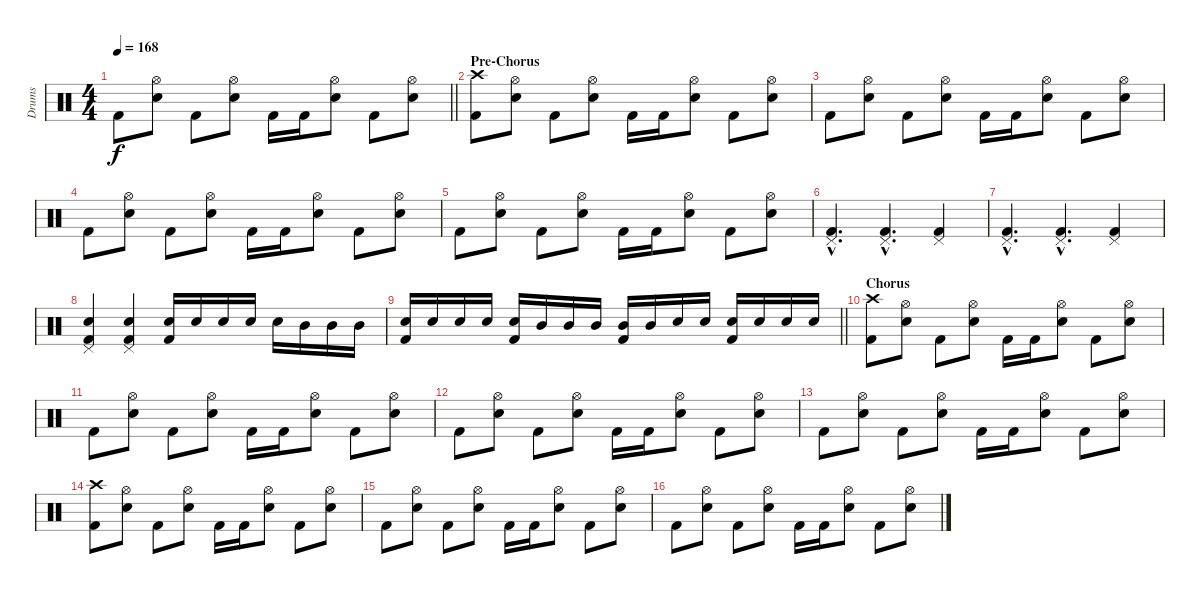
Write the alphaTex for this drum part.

\track ("Drums" "Drums") {instrument percussion}
\staff {score}
\articulation defaults
\ts (4 4)
\tempo 168
\clef neutral
\barLineRight lightlight
\ks c "Kick (hit) 2".8{dy f}
("Snare (hit) 2" "Hi-Hat (open)").8 "Kick (hit) 2".8 ("Snare (hit) 2" "Hi-Hat (open)").8 "Kick (hit) 2".16 "Kick (hit) 2".16 ("Snare (hit) 2" "Hi-Hat (open)").8 "Kick (hit) 2".8 ("Snare (hit) 2" "Hi-Hat (open)").8 |
\section ("" "Pre-Chorus")
("Kick (hit) 2" "Crash high (hit)").8 ("Snare (hit) 2" "Hi-Hat (open)").8 "Kick (hit) 2".8 ("Snare (hit) 2" "Hi-Hat (open)").8 "Kick (hit) 2".16 "Kick (hit) 2".16 ("Snare (hit) 2" "Hi-Hat (open)").8 "Kick (hit) 2".8 ("Snare (hit) 2" "Hi-Hat (open)").8 |
"Kick (hit) 2".8 ("Snare (hit) 2" "Hi-Hat (open)").8 "Kick (hit) 2".8 ("Snare (hit) 2" "Hi-Hat (open)").8 "Kick (hit) 2".16 "Kick (hit) 2".16 ("Snare (hit) 2" "Hi-Hat (open)").8 "Kick (hit) 2".8 ("Snare (hit) 2" "Hi-Hat (open)").8 |
"Kick (hit) 2".8 ("Snare (hit) 2" "Hi-Hat (open)").8 "Kick (hit) 2".8 ("Snare (hit) 2" "Hi-Hat (open)").8 "Kick (hit) 2".16 "Kick (hit) 2".16 ("Snare (hit) 2" "Hi-Hat (open)").8 "Kick (hit) 2".8 ("Snare (hit) 2" "Hi-Hat (open)").8 |
"Kick (hit) 2".8 ("Snare (hit) 2" "Hi-Hat (open)").8 "Kick (hit) 2".8 ("Snare (hit) 2" "Hi-Hat (open)").8 "Kick (hit) 2".16 "Kick (hit) 2".16 ("Snare (hit) 2" "Hi-Hat (open)").8 "Kick (hit) 2".8 ("Snare (hit) 2" "Hi-Hat (open)").8 |
("Kick (hit) 2"{hac} "Pedal Hi-Hat (hit)"{hac}).4{d} ("Kick (hit) 2"{hac} "Pedal Hi-Hat (hit)"{hac}).4{d} ("Kick (hit) 2" "Pedal Hi-Hat (hit)").4 |
("Kick (hit) 2"{hac} "Pedal Hi-Hat (hit)"{hac}).4{d} ("Kick (hit) 2"{hac} "Pedal Hi-Hat (hit)"{hac}).4{d} ("Kick (hit) 2" "Pedal Hi-Hat (hit)").4 |
("Kick (hit) 2" "Snare (hit) 2" "Pedal Hi-Hat (hit)").4 ("Kick (hit) 2" "Snare (hit) 2" "Pedal Hi-Hat (hit)").4 ("Kick (hit) 2" "Snare (hit) 2").16 "Snare (hit) 2".16 "Snare (hit) 2".16 "Snare (hit) 2".16 "Snare (hit) 2".16 "Mid Tom (hit)".16 "Mid Tom (hit)".16 "Mid Tom (hit)".16 |
\barLineRight lightlight
("Kick (hit) 2" "Snare (hit) 2").16 "Snare (hit) 2".16 "Snare (hit) 2".16 "Snare (hit) 2".16 ("Kick (hit) 2" "Snare (hit) 2").16 "Mid Tom (hit)".16 "Mid Tom (hit)".16 "Mid Tom (hit)".16 ("Kick (hit) 2" "Mid Tom (hit)").16 "Mid Tom (hit)".16 "Snare (hit) 2".16 "Snare (hit) 2".16 ("Kick (hit) 2" "Snare (hit) 2").16 "Snare (hit) 2".16 "Snare (hit) 2".16 "Snare (hit) 2".16 |
\section ("" "Chorus")
("Kick (hit) 2" "Crash high (hit)").8 ("Snare (hit) 2" "Hi-Hat (open)").8 "Kick (hit) 2".8 ("Snare (hit) 2" "Hi-Hat (open)").8 "Kick (hit) 2".16 "Kick (hit) 2".16 ("Snare (hit) 2" "Hi-Hat (open)").8 "Kick (hit) 2".8 ("Snare (hit) 2" "Hi-Hat (open)").8 |
"Kick (hit) 2".8 ("Snare (hit) 2" "Hi-Hat (open)").8 "Kick (hit) 2".8 ("Snare (hit) 2" "Hi-Hat (open)").8 "Kick (hit) 2".16 "Kick (hit) 2".16 ("Snare (hit) 2" "Hi-Hat (open)").8 "Kick (hit) 2".8 ("Snare (hit) 2" "Hi-Hat (open)").8 |
"Kick (hit) 2".8 ("Snare (hit) 2" "Hi-Hat (open)").8 "Kick (hit) 2".8 ("Snare (hit) 2" "Hi-Hat (open)").8 "Kick (hit) 2".16 "Kick (hit) 2".16 ("Snare (hit) 2" "Hi-Hat (open)").8 "Kick (hit) 2".8 ("Snare (hit) 2" "Hi-Hat (open)").8 |
"Kick (hit) 2".8 ("Snare (hit) 2" "Hi-Hat (open)").8 "Kick (hit) 2".8 ("Snare (hit) 2" "Hi-Hat (open)").8 "Kick (hit) 2".16 "Kick (hit) 2".16 ("Snare (hit) 2" "Hi-Hat (open)").8 "Kick (hit) 2".8 ("Snare (hit) 2" "Hi-Hat (open)").8 |
("Kick (hit) 2" "Crash high (hit)").8 ("Snare (hit) 2" "Hi-Hat (open)").8 "Kick (hit) 2".8 ("Snare (hit) 2" "Hi-Hat (open)").8 "Kick (hit) 2".16 "Kick (hit) 2".16 ("Snare (hit) 2" "Hi-Hat (open)").8 "Kick (hit) 2".8 ("Snare (hit) 2" "Hi-Hat (open)").8 |
"Kick (hit) 2".8 ("Snare (hit) 2" "Hi-Hat (open)").8 "Kick (hit) 2".8 ("Snare (hit) 2" "Hi-Hat (open)").8 "Kick (hit) 2".16 "Kick (hit) 2".16 ("Snare (hit) 2" "Hi-Hat (open)").8 "Kick (hit) 2".8 ("Snare (hit) 2" "Hi-Hat (open)").8 |
"Kick (hit) 2".8 ("Snare (hit) 2" "Hi-Hat (open)").8 "Kick (hit) 2".8 ("Snare (hit) 2" "Hi-Hat (open)").8 "Kick (hit) 2".16 "Kick (hit) 2".16 ("Snare (hit) 2" "Hi-Hat (open)").8 "Kick (hit) 2".8 ("Snare (hit) 2" "Hi-Hat (open)").8
